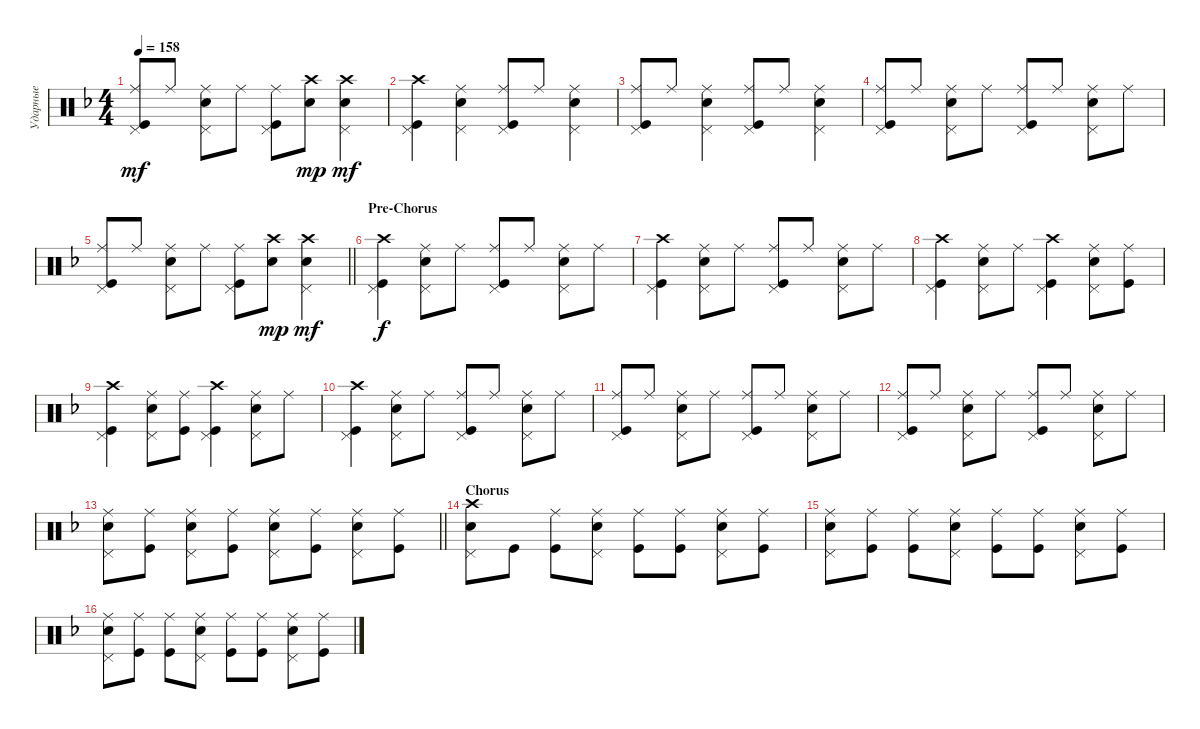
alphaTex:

\track ("Ударные" "Ударные") {instrument percussion}
\staff {score}
\articulation defaults
\ts (4 4)
\tempo 158
\clef neutral
\ks dminor
("Ride (middle)" "Kick (hit)" "Pedal Hi-Hat (hit)").8{dy mf} "Ride (middle)".8 ("Snare (hit) 2" "Pedal Hi-Hat (hit)" "Ride (middle)").8 "Ride (middle)".8 ("Ride (middle)" "Kick (hit)" "Pedal Hi-Hat (hit)").8 ("Crash high (hit)" "Snare (hit) 2").8{dy mp} ("Crash high (hit)" "Snare (hit) 2" "Pedal Hi-Hat (hit)").4{dy mf} |
("Kick (hit)" "Crash high (hit)" "Pedal Hi-Hat (hit)").4 ("Ride (middle)" "Snare (hit) 2" "Pedal Hi-Hat (hit)").4 ("Ride (middle)" "Kick (hit)" "Pedal Hi-Hat (hit)").8 "Ride (middle)".8 ("Snare (hit) 2" "Pedal Hi-Hat (hit)" "Ride (middle)").4 |
("Ride (middle)" "Kick (hit)" "Pedal Hi-Hat (hit)").8 "Ride (middle)".8 ("Snare (hit) 2" "Pedal Hi-Hat (hit)" "Ride (middle)").4 ("Ride (middle)" "Kick (hit)" "Pedal Hi-Hat (hit)").8 "Ride (middle)".8 ("Snare (hit) 2" "Pedal Hi-Hat (hit)" "Ride (middle)").4 |
("Ride (middle)" "Kick (hit)" "Pedal Hi-Hat (hit)").8 "Ride (middle)".8 ("Snare (hit) 2" "Pedal Hi-Hat (hit)" "Ride (middle)").8 "Ride (middle)".8 ("Ride (middle)" "Kick (hit)" "Pedal Hi-Hat (hit)").8 "Ride (middle)".8 ("Snare (hit) 2" "Pedal Hi-Hat (hit)" "Ride (middle)").8 "Ride (middle)".8 |
\barLineRight lightlight
("Ride (middle)" "Kick (hit)" "Pedal Hi-Hat (hit)").8 "Ride (middle)".8 ("Snare (hit) 2" "Pedal Hi-Hat (hit)" "Ride (middle)").8 "Ride (middle)".8 ("Ride (middle)" "Kick (hit)" "Pedal Hi-Hat (hit)").8 ("Crash high (hit)" "Snare (hit) 2").8{dy mp} ("Crash high (hit)" "Snare (hit) 2" "Pedal Hi-Hat (hit)").4{dy mf} |
\section ("" "Pre-Chorus")
("Kick (hit)" "Crash high (hit)" "Pedal Hi-Hat (hit)").4{dy f} ("Ride (middle)" "Snare (hit) 2" "Pedal Hi-Hat (hit)").8 "Ride (middle)".8 ("Ride (middle)" "Kick (hit)" "Pedal Hi-Hat (hit)").8 "Ride (middle)".8 ("Ride (middle)" "Snare (hit) 2" "Pedal Hi-Hat (hit)").8 "Ride (middle)".8 |
("Kick (hit)" "Crash high (hit)" "Pedal Hi-Hat (hit)").4 ("Ride (middle)" "Snare (hit) 2" "Pedal Hi-Hat (hit)").8 "Ride (middle)".8 ("Ride (middle)" "Kick (hit)" "Pedal Hi-Hat (hit)").8 "Ride (middle)".8 ("Ride (middle)" "Snare (hit) 2" "Pedal Hi-Hat (hit)").8 "Ride (middle)".8 |
("Kick (hit)" "Crash high (hit)" "Pedal Hi-Hat (hit)").4 ("Ride (middle)" "Snare (hit) 2" "Pedal Hi-Hat (hit)").8 "Ride (middle)".8 ("Crash high (hit)" "Kick (hit)" "Pedal Hi-Hat (hit)").4 ("Ride (middle)" "Snare (hit) 2" "Pedal Hi-Hat (hit)").8 ("Ride (middle)" "Kick (hit)").8 |
("Kick (hit)" "Crash high (hit)" "Pedal Hi-Hat (hit)").4 ("Ride (middle)" "Snare (hit) 2" "Pedal Hi-Hat (hit)").8 ("Ride (middle)" "Kick (hit)").8 ("Crash high (hit)" "Kick (hit)" "Pedal Hi-Hat (hit)").4 ("Ride (middle)" "Snare (hit) 2" "Pedal Hi-Hat (hit)").8 "Ride (middle)".8 |
("Kick (hit)" "Crash high (hit)" "Pedal Hi-Hat (hit)").4 ("Ride (middle)" "Snare (hit) 2" "Pedal Hi-Hat (hit)").8 "Ride (middle)".8 ("Ride (middle)" "Kick (hit)" "Pedal Hi-Hat (hit)").8 "Ride (middle)".8 ("Ride (middle)" "Snare (hit) 2" "Pedal Hi-Hat (hit)").8 "Ride (middle)".8 |
("Kick (hit)" "Ride (middle)" "Pedal Hi-Hat (hit)").8 "Ride (middle)".8 ("Ride (middle)" "Snare (hit) 2" "Pedal Hi-Hat (hit)").8 "Ride (middle)".8 ("Ride (middle)" "Kick (hit)" "Pedal Hi-Hat (hit)").8 "Ride (middle)".8 ("Ride (middle)" "Snare (hit) 2" "Pedal Hi-Hat (hit)").8 "Ride (middle)".8 |
("Kick (hit)" "Ride (middle)" "Pedal Hi-Hat (hit)").8 "Ride (middle)".8 ("Ride (middle)" "Snare (hit) 2" "Pedal Hi-Hat (hit)").8 "Ride (middle)".8 ("Ride (middle)" "Kick (hit)" "Pedal Hi-Hat (hit)").8 "Ride (middle)".8 ("Ride (middle)" "Snare (hit) 2" "Pedal Hi-Hat (hit)").8 "Ride (middle)".8 |
\barLineRight lightlight
("Snare (hit) 2" "Ride (middle)" "Pedal Hi-Hat (hit)").8 ("Ride (middle)" "Kick (hit)").8 ("Ride (middle)" "Snare (hit) 2" "Pedal Hi-Hat (hit)").8 ("Ride (middle)" "Kick (hit)").8 ("Ride (middle)" "Snare (hit) 2" "Pedal Hi-Hat (hit)").8 ("Ride (middle)" "Kick (hit)").8 ("Ride (middle)" "Snare (hit) 2" "Pedal Hi-Hat (hit)").8 ("Ride (middle)" "Kick (hit)").8 |
\section ("" "Chorus")
("Snare (hit) 2" "Crash high (hit)" "Pedal Hi-Hat (hit)").8 "Kick (hit)".8 ("Kick (hit)" "Ride (middle)").8 ("Snare (hit) 2" "Ride (middle)" "Pedal Hi-Hat (hit)").8 ("Kick (hit)" "Ride (middle)").8 ("Kick (hit)" "Ride (middle)").8 ("Snare (hit) 2" "Ride (middle)" "Pedal Hi-Hat (hit)").8 ("Kick (hit)" "Ride (middle)").8 |
("Snare (hit) 2" "Ride (middle)" "Pedal Hi-Hat (hit)").8 ("Kick (hit)" "Ride (middle)").8 ("Kick (hit)" "Ride (middle)").8 ("Snare (hit) 2" "Ride (middle)" "Pedal Hi-Hat (hit)").8 ("Kick (hit)" "Ride (middle)").8 ("Kick (hit)" "Ride (middle)").8 ("Snare (hit) 2" "Ride (middle)" "Pedal Hi-Hat (hit)").8 ("Kick (hit)" "Ride (middle)").8 |
("Snare (hit) 2" "Ride (middle)" "Pedal Hi-Hat (hit)").8 ("Kick (hit)" "Ride (middle)").8 ("Kick (hit)" "Ride (middle)").8 ("Snare (hit) 2" "Ride (middle)" "Pedal Hi-Hat (hit)").8 ("Kick (hit)" "Ride (middle)").8 ("Kick (hit)" "Ride (middle)").8 ("Snare (hit) 2" "Ride (middle)" "Pedal Hi-Hat (hit)").8 ("Kick (hit)" "Ride (middle)").8
